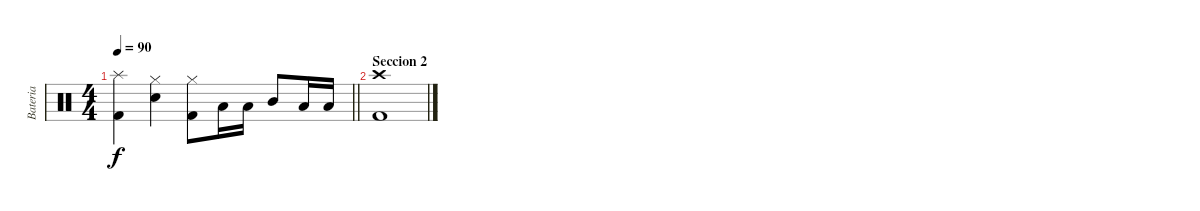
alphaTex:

\track ("Bateria" "Bateria") {instrument percussion}
\staff {score}
\articulation defaults
\ts (4 4)
\tempo 90
\clef neutral
\barLineRight lightlight
\ks c
("Splash (hit)" "Kick (hit) 2").4{dy f} ("Hi-Hat (closed)" "Snare (hit) 2").4 ("Hi-Hat (closed)" "Kick (hit) 2").8 "Low Floor Tom (hit)".16 "Low Floor Tom (hit)".16 "Mid Tom (hit)".8 "Low Tom (hit)".16 "Low Tom (hit)".16 |
\section ("" "Seccion 2")
("Crash high (hit)" "Kick (hit) 2").1
